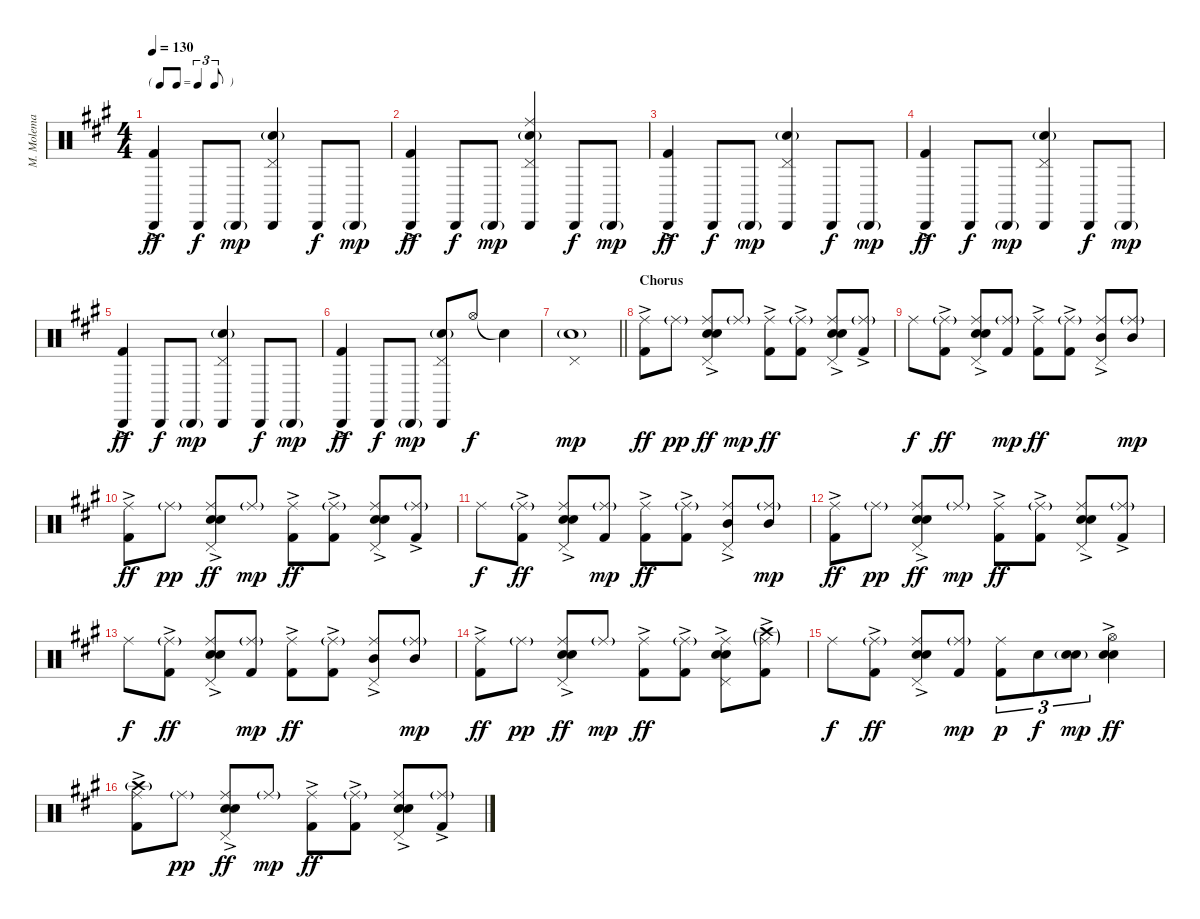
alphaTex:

\track ("M. Molema" "M. Molema") {instrument percussion}
\staff {score}
\articulation defaults
\ts (4 4)
\tf triplet8th
\tempo 130
\clef neutral
\ks a
("Cabasa (hit)" "Kick (hit) 2"{ac}).4{dy ff} "Cabasa (hit)".8{dy f} "Cabasa (hit)"{g}.8{dy mp} ("Pedal Hi-Hat (hit)" "Cabasa (hit)" "Snare (hit) 2"{g}).4 "Cabasa (hit)".8{dy f} "Cabasa (hit)"{g}.8{dy mp} |
("Cabasa (hit)" "Kick (hit) 2"{ac}).4{dy ff} "Cabasa (hit)".8{dy f} "Cabasa (hit)"{g}.8{dy mp} ("Pedal Hi-Hat (hit)" "Ride (middle)" "Cabasa (hit)" "Snare (hit) 2"{g}).4 "Cabasa (hit)".8{dy f} "Cabasa (hit)"{g}.8{dy mp} |
("Cabasa (hit)" "Kick (hit) 2"{ac}).4{dy ff} "Cabasa (hit)".8{dy f} "Cabasa (hit)"{g}.8{dy mp} ("Pedal Hi-Hat (hit)" "Cabasa (hit)" "Snare (hit) 2"{g}).4 "Cabasa (hit)".8{dy f} "Cabasa (hit)"{g}.8{dy mp} |
("Cabasa (hit)" "Kick (hit) 2"{ac}).4{dy ff} "Cabasa (hit)".8{dy f} "Cabasa (hit)"{g}.8{dy mp} ("Pedal Hi-Hat (hit)" "Cabasa (hit)" "Snare (hit) 2"{g}).4 "Cabasa (hit)".8{dy f} "Cabasa (hit)"{g}.8{dy mp} |
("Cabasa (hit)" "Kick (hit) 2"{ac}).4{dy ff} "Cabasa (hit)".8{dy f} "Cabasa (hit)"{g}.8{dy mp} ("Pedal Hi-Hat (hit)" "Cabasa (hit)" "Snare (hit) 2"{g}).4 "Cabasa (hit)".8{dy f} "Cabasa (hit)"{g}.8{dy mp} |
("Cabasa (hit)" "Kick (hit) 2"{ac}).4{dy ff} "Cabasa (hit)".8{dy f} "Cabasa (hit)"{g}.8{dy mp} ("Pedal Hi-Hat (hit)" "Cabasa (hit)" "Snare (hit) 2"{g}).8 "Hi-Hat (open)".8{dy f} "Snare (hit)"{t}.4 |
\barLineRight lightlight
("Pedal Hi-Hat (hit)" "Snare (hit) 2"{g}).1{dy mp} |
\section ("" "Chorus")
("Ride (middle)" "Kick (hit) 2"{ac}).8{dy ff} "Ride (middle)"{g}.8{dy pp} ("Ride (middle)" "Electric Snare (hit)"{ac} "Snare (hit) 2" "Pedal Hi-Hat (hit)").8{dy ff} "Ride (middle)"{g}.8{dy mp} ("Ride (middle)" "Kick (hit) 2"{ac}).8{dy ff} ("Ride (middle)"{g} "Kick (hit) 2"{ac}).8 ("Ride (middle)" "Electric Snare (hit)"{ac} "Snare (hit) 2" "Pedal Hi-Hat (hit)").8 ("Ride (middle)"{g} "Kick (hit) 2"{ac}).8 |
"Ride (middle)".8{dy f} ("Ride (middle)"{g} "Kick (hit) 2"{ac}).8{dy ff} ("Ride (middle)" "Electric Snare (hit)"{ac} "Snare (hit) 2" "Pedal Hi-Hat (hit)").8 ("Ride (middle)"{g} "Kick (hit) 2").8{dy mp} ("Ride (middle)" "Kick (hit) 2"{ac}).8{dy ff} ("Ride (middle)"{g} "Kick (hit) 2"{ac}).8 ("Ride (middle)" "Mid Tom (hit)"{ac} "Pedal Hi-Hat (hit)").8 ("Ride (middle)"{g} "Mid Tom (hit)").8{dy mp} |
("Ride (middle)" "Kick (hit) 2"{ac}).8{dy ff} "Ride (middle)"{g}.8{dy pp} ("Ride (middle)" "Electric Snare (hit)"{ac} "Snare (hit) 2" "Pedal Hi-Hat (hit)").8{dy ff} "Ride (middle)"{g}.8{dy mp} ("Ride (middle)" "Kick (hit) 2"{ac}).8{dy ff} ("Ride (middle)"{g} "Kick (hit) 2"{ac}).8 ("Ride (middle)" "Electric Snare (hit)"{ac} "Snare (hit) 2" "Pedal Hi-Hat (hit)").8 ("Ride (middle)"{g} "Kick (hit) 2"{ac}).8 |
"Ride (middle)".8{dy f} ("Ride (middle)"{g} "Kick (hit) 2"{ac}).8{dy ff} ("Ride (middle)" "Electric Snare (hit)"{ac} "Snare (hit) 2" "Pedal Hi-Hat (hit)").8 ("Ride (middle)"{g} "Kick (hit) 2").8{dy mp} ("Ride (middle)" "Kick (hit) 2"{ac}).8{dy ff} ("Ride (middle)"{g} "Kick (hit) 2"{ac}).8 ("Ride (middle)" "Mid Tom (hit)"{ac} "Pedal Hi-Hat (hit)").8 ("Ride (middle)"{g} "Mid Tom (hit)").8{dy mp} |
("Ride (middle)" "Kick (hit) 2"{ac}).8{dy ff} "Ride (middle)"{g}.8{dy pp} ("Ride (middle)" "Electric Snare (hit)"{ac} "Snare (hit) 2" "Pedal Hi-Hat (hit)").8{dy ff} "Ride (middle)"{g}.8{dy mp} ("Ride (middle)" "Kick (hit) 2"{ac}).8{dy ff} ("Ride (middle)"{g} "Kick (hit) 2"{ac}).8 ("Ride (middle)" "Electric Snare (hit)"{ac} "Snare (hit) 2" "Pedal Hi-Hat (hit)").8 ("Ride (middle)"{g} "Kick (hit) 2"{ac}).8 |
"Ride (middle)".8{dy f} ("Ride (middle)"{g} "Kick (hit) 2"{ac}).8{dy ff} ("Ride (middle)" "Electric Snare (hit)"{ac} "Snare (hit) 2" "Pedal Hi-Hat (hit)").8 ("Ride (middle)"{g} "Kick (hit) 2").8{dy mp} ("Ride (middle)" "Kick (hit) 2"{ac}).8{dy ff} ("Ride (middle)"{g} "Kick (hit) 2"{ac}).8 ("Ride (middle)" "Mid Tom (hit)"{ac} "Pedal Hi-Hat (hit)").8 ("Ride (middle)"{g} "Mid Tom (hit)").8{dy mp} |
("Ride (middle)" "Kick (hit) 2"{ac}).8{dy ff} "Ride (middle)"{g}.8{dy pp} ("Ride (middle)" "Electric Snare (hit)"{ac} "Snare (hit) 2" "Pedal Hi-Hat (hit)").8{dy ff} "Ride (middle)"{g}.8{dy mp} ("Ride (middle)" "Kick (hit) 2"{ac}).8{dy ff} ("Ride (middle)"{g} "Kick (hit) 2"{ac}).8 ("Ride (middle)" "Electric Snare (hit)"{ac} "Snare (hit) 2" "Pedal Hi-Hat (hit)").8 ("Ride (middle)"{g} "Crash high (hit)"{g} "Kick (hit) 2"{ac}).8 |
"Ride (middle)".8{dy f} ("Ride (middle)"{g} "Kick (hit) 2"{ac}).8{dy ff} ("Ride (middle)" "Electric Snare (hit)"{ac} "Snare (hit) 2" "Pedal Hi-Hat (hit)").8 ("Ride (middle)"{g} "Kick (hit) 2").8{dy mp} ("Ride (middle)" "Kick (hit) 2").8{tu (3 2) dy p} "Snare (hit) 2".8{tu (3 2) dy f} ("Electric Snare (hit)"{g} "Snare (hit) 2").8{tu (3 2) dy mp} ("Hi-Hat (open)" "Electric Snare (hit)"{ac} "Snare (hit) 2").4{dy ff} |
("Ride (middle)" "Crash high (hit)"{g} "Kick (hit) 2"{ac}).8 "Ride (middle)"{g}.8{dy pp} ("Ride (middle)" "Electric Snare (hit)"{ac} "Snare (hit) 2" "Pedal Hi-Hat (hit)").8{dy ff} "Ride (middle)"{g}.8{dy mp} ("Ride (middle)" "Kick (hit) 2"{ac}).8{dy ff} ("Ride (middle)"{g} "Kick (hit) 2"{ac}).8 ("Ride (middle)" "Electric Snare (hit)"{ac} "Snare (hit) 2" "Pedal Hi-Hat (hit)").8 ("Ride (middle)"{g} "Kick (hit) 2"{ac}).8
